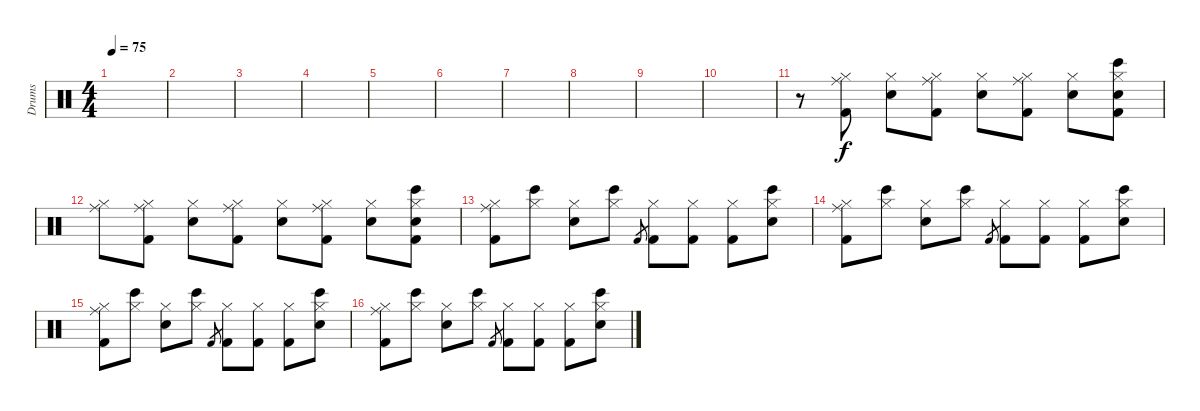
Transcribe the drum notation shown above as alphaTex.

\track ("Drums" "Drums") {instrument percussion}
\staff {score}
\articulation defaults
\ts (4 4)
\tempo 75
\clef neutral
\ks c
|
|
|
|
|
|
|
|
|
|
r.8 ("Ride (middle)" "Hi-Hat (closed)" "Kick (hit) 2").8 ("Hi-Hat (closed)" "Electric Snare (hit)").8 ("Ride (middle)" "Hi-Hat (closed)" "Kick (hit) 2").8 ("Hi-Hat (closed)" "Electric Snare (hit)").8 ("Ride (middle)" "Hi-Hat (closed)" "Kick (hit) 2").8 ("Hi-Hat (closed)" "Electric Snare (hit)").8 ("Bongo High (hit)" "Hi-Hat (closed)" "Electric Snare (hit)" "Kick (hit) 2").8 |
("Ride (middle)" "Hi-Hat (closed)").8 ("Ride (middle)" "Hi-Hat (closed)" "Kick (hit) 2").8 ("Hi-Hat (closed)" "Electric Snare (hit)").8 ("Ride (middle)" "Hi-Hat (closed)" "Kick (hit) 2").8 ("Hi-Hat (closed)" "Electric Snare (hit)").8 ("Ride (middle)" "Hi-Hat (closed)" "Kick (hit) 2").8 ("Hi-Hat (closed)" "Electric Snare (hit)").8 ("Bongo High (hit)" "Hi-Hat (closed)" "Electric Snare (hit)" "Kick (hit) 2").8 |
("Ride (middle)" "Hi-Hat (closed)" "Kick (hit) 2").8 ("Bongo High (hit)" "Hi-Hat (closed)").8 ("Hi-Hat (closed)" "Electric Snare (hit)").8 ("Bongo High (hit)" "Hi-Hat (closed)").8 "Kick (hit) 2".8{gr} ("Hi-Hat (closed)" "Kick (hit) 2").8 ("Hi-Hat (closed)" "Kick (hit) 2").8 ("Hi-Hat (closed)" "Kick (hit) 2").8 ("Bongo High (hit)" "Hi-Hat (closed)" "Electric Snare (hit)").8 |
("Ride (middle)" "Hi-Hat (closed)" "Kick (hit) 2").8 ("Bongo High (hit)" "Hi-Hat (closed)").8 ("Hi-Hat (closed)" "Electric Snare (hit)").8 ("Bongo High (hit)" "Hi-Hat (closed)").8 "Kick (hit) 2".8{gr} ("Hi-Hat (closed)" "Kick (hit) 2").8 ("Hi-Hat (closed)" "Kick (hit) 2").8 ("Hi-Hat (closed)" "Kick (hit) 2").8 ("Bongo High (hit)" "Hi-Hat (closed)" "Electric Snare (hit)").8 |
("Ride (middle)" "Hi-Hat (closed)" "Kick (hit) 2").8 ("Bongo High (hit)" "Hi-Hat (closed)").8 ("Hi-Hat (closed)" "Electric Snare (hit)").8 ("Bongo High (hit)" "Hi-Hat (closed)").8 "Kick (hit) 2".8{gr} ("Hi-Hat (closed)" "Kick (hit) 2").8 ("Hi-Hat (closed)" "Kick (hit) 2").8 ("Hi-Hat (closed)" "Kick (hit) 2").8 ("Bongo High (hit)" "Hi-Hat (closed)" "Electric Snare (hit)").8 |
("Ride (middle)" "Hi-Hat (closed)" "Kick (hit) 2").8 ("Bongo High (hit)" "Hi-Hat (closed)").8 ("Hi-Hat (closed)" "Electric Snare (hit)").8 ("Bongo High (hit)" "Hi-Hat (closed)").8 "Kick (hit) 2".8{gr} ("Hi-Hat (closed)" "Kick (hit) 2").8 ("Hi-Hat (closed)" "Kick (hit) 2").8 ("Hi-Hat (closed)" "Kick (hit) 2").8 ("Bongo High (hit)" "Hi-Hat (closed)" "Electric Snare (hit)").8
